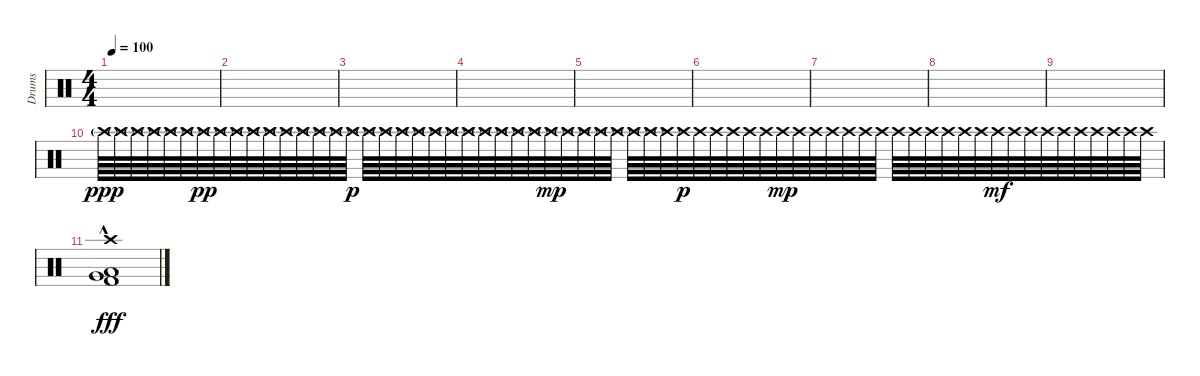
\track ("Drums" "Drums") {instrument percussion}
\staff {score}
\articulation defaults
\ts (4 4)
\tempo 100
\clef neutral
\ks aminor
|
|
|
|
|
|
|
|
|
"Crash high (hit)"{g}.64{dy ppp} "Crash high (hit)"{g}.64 "Crash high (hit)"{g}.64 "Crash high (hit)"{g}.64 "Crash high (hit)"{g}.64 "Crash high (hit)"{g}.64 "Crash high (hit)"{g}.64{dy pp} "Crash high (hit)"{g}.64 "Crash high (hit)"{g}.64 "Crash high (hit)"{g}.64 "Crash high (hit)"{g}.64 "Crash high (hit)"{g}.64 "Crash high (hit)"{g}.64 "Crash high (hit)"{g}.64 "Crash high (hit)"{g}.64 "Crash high (hit)"{g}.64{dy p} "Crash high (hit)"{g}.64 "Crash high (hit)"{g}.64 "Crash high (hit)"{g}.64 "Crash high (hit)"{g}.64 "Crash high (hit)"{g}.64 "Crash high (hit)"{g}.64 "Crash high (hit)"{g}.64 "Crash high (hit)"{g}.64 "Crash high (hit)"{g}.64 "Crash high (hit)"{g}.64 "Crash high (hit)"{g}.64 "Crash high (hit)"{g}.64{dy mp} "Crash high (hit)"{g}.64 "Crash high (hit)"{g}.64 "Crash high (hit)"{g}.64 "Crash high (hit)"{g}.64 "Crash high (hit)"{g}.64 "Crash high (hit)"{g}.64 "Crash high (hit)"{g}.64 "Crash high (hit)".64{dy p} "Crash high (hit)".64 "Crash high (hit)".64 "Crash high (hit)".64 "Crash high (hit)".64 "Crash high (hit)".64 "Crash high (hit)".64{dy mp} "Crash high (hit)".64 "Crash high (hit)".64 "Crash high (hit)".64 "Crash high (hit)".64 "Crash high (hit)".64 "Crash high (hit)".64 "Crash high (hit)".64 "Crash high (hit)".64 "Crash high (hit)".64 "Crash high (hit)".64 "Crash high (hit)".64 "Crash high (hit)".64 "Crash high (hit)".64{dy mf} "Crash high (hit)".64 "Crash high (hit)".64 "Crash high (hit)".64 "Crash high (hit)".64 "Crash high (hit)".64 "Crash high (hit)".64 "Crash high (hit)".64 "Crash high (hit)".64 "Crash high (hit)".64 |
("Crash high (hit)" "Low Floor Tom (hit)"{hac} "Very Low Tom (hit)"{hac} "Kick (hit) 2"{hac}).1{dy fff}
